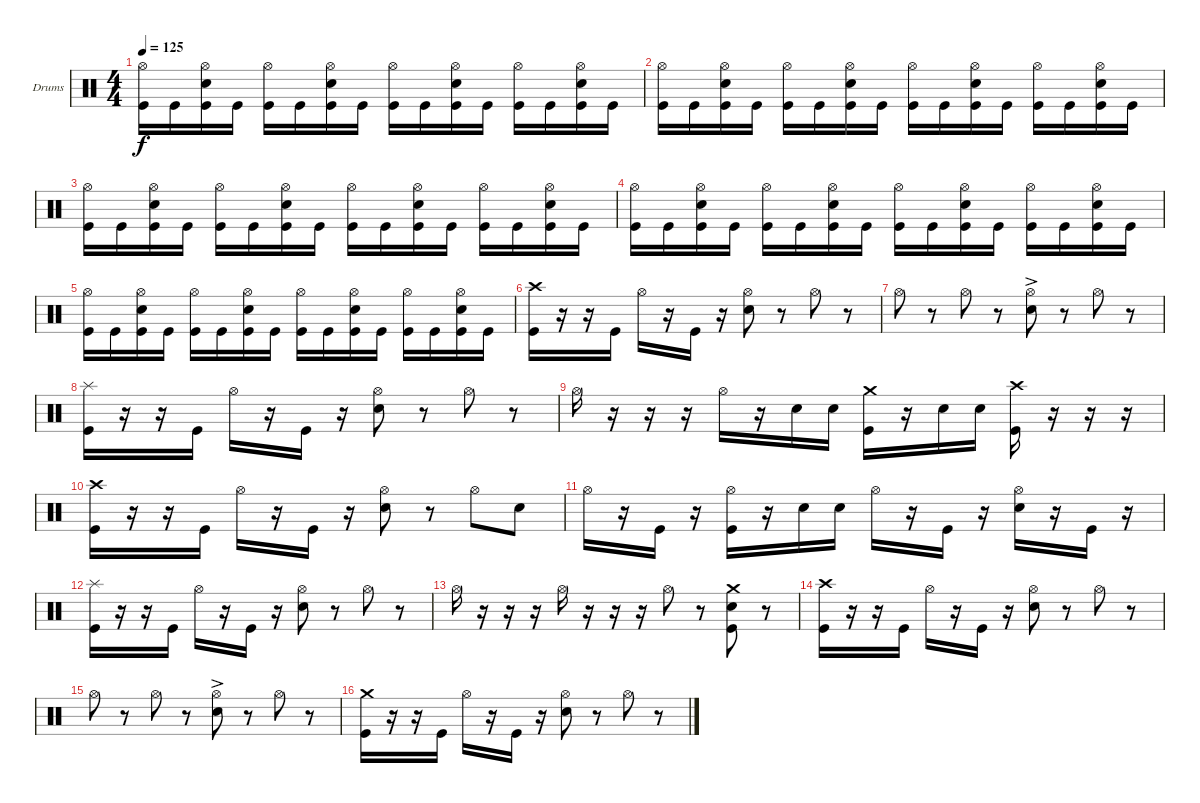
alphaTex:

\defaultSystemsLayout 4
\bracketExtendMode groupsimilarinstruments
\firstSystemTrackNameOrientation horizontal
\otherSystemsTrackNameOrientation horizontal
\track ("Drumkit" "Drums") {instrument percussion}
\staff {score}
\articulation defaults
\ts (4 4)
\tempo 125
\clef neutral
\ks c
("Kick (hit)" "Hi-Hat (open)").16{dy f} "Kick (hit)".16 ("Kick (hit)" "Snare (hit) 2" "Hi-Hat (open)").16 "Kick (hit)".16 ("Kick (hit)" "Hi-Hat (open)").16 "Kick (hit)".16 ("Kick (hit)" "Snare (hit) 2" "Hi-Hat (open)").16 "Kick (hit)".16 ("Kick (hit)" "Hi-Hat (open)").16 "Kick (hit)".16 ("Kick (hit)" "Snare (hit) 2" "Hi-Hat (open)").16 "Kick (hit)".16 ("Kick (hit)" "Hi-Hat (open)").16 "Kick (hit)".16 ("Kick (hit)" "Snare (hit) 2" "Hi-Hat (open)").16 "Kick (hit)".16 |
("Kick (hit)" "Hi-Hat (open)").16 "Kick (hit)".16 ("Kick (hit)" "Snare (hit) 2" "Hi-Hat (open)").16 "Kick (hit)".16 ("Kick (hit)" "Hi-Hat (open)").16 "Kick (hit)".16 ("Kick (hit)" "Snare (hit) 2" "Hi-Hat (open)").16 "Kick (hit)".16 ("Kick (hit)" "Hi-Hat (open)").16 "Kick (hit)".16 ("Kick (hit)" "Snare (hit) 2" "Hi-Hat (open)").16 "Kick (hit)".16 ("Kick (hit)" "Hi-Hat (open)").16 "Kick (hit)".16 ("Kick (hit)" "Snare (hit) 2" "Hi-Hat (open)").16 "Kick (hit)".16 |
("Kick (hit)" "Hi-Hat (open)").16 "Kick (hit)".16 ("Kick (hit)" "Snare (hit) 2" "Hi-Hat (open)").16 "Kick (hit)".16 ("Kick (hit)" "Hi-Hat (open)").16 "Kick (hit)".16 ("Kick (hit)" "Snare (hit) 2" "Hi-Hat (open)").16 "Kick (hit)".16 ("Kick (hit)" "Hi-Hat (open)").16 "Kick (hit)".16 ("Kick (hit)" "Snare (hit) 2" "Hi-Hat (open)").16 "Kick (hit)".16 ("Kick (hit)" "Hi-Hat (open)").16 "Kick (hit)".16 ("Kick (hit)" "Snare (hit) 2" "Hi-Hat (open)").16 "Kick (hit)".16 |
("Kick (hit)" "Hi-Hat (open)").16 "Kick (hit)".16 ("Kick (hit)" "Snare (hit) 2" "Hi-Hat (open)").16 "Kick (hit)".16 ("Kick (hit)" "Hi-Hat (open)").16 "Kick (hit)".16 ("Kick (hit)" "Snare (hit) 2" "Hi-Hat (open)").16 "Kick (hit)".16 ("Kick (hit)" "Hi-Hat (open)").16 "Kick (hit)".16 ("Kick (hit)" "Snare (hit) 2" "Hi-Hat (open)").16 "Kick (hit)".16 ("Kick (hit)" "Hi-Hat (open)").16 "Kick (hit)".16 ("Kick (hit)" "Snare (hit) 2" "Hi-Hat (open)").16 "Kick (hit)".16 |
("Kick (hit)" "Hi-Hat (open)").16 "Kick (hit)".16 ("Kick (hit)" "Snare (hit) 2" "Hi-Hat (open)").16 "Kick (hit)".16 ("Kick (hit)" "Hi-Hat (open)").16 "Kick (hit)".16 ("Kick (hit)" "Snare (hit) 2" "Hi-Hat (open)").16 "Kick (hit)".16 ("Kick (hit)" "Hi-Hat (open)").16 "Kick (hit)".16 ("Kick (hit)" "Snare (hit) 2" "Hi-Hat (open)").16 "Kick (hit)".16 ("Kick (hit)" "Hi-Hat (open)").16 "Kick (hit)".16 ("Kick (hit)" "Snare (hit) 2" "Hi-Hat (open)").16 "Kick (hit)".16 |
("Kick (hit)" "Crash high (hit)").16 r.16 r.16 "Kick (hit)".16 "Hi-Hat (open)".16 r.16 "Kick (hit)".16 r.16 ("Snare (hit) 2" "Hi-Hat (open)").8 r.8 "Hi-Hat (open)".8 r.8 |
"Hi-Hat (open)".8 r.8 "Hi-Hat (open)".8 r.8 ("Snare (hit) 2"{ac} "Hi-Hat (open)").8 r.8 "Hi-Hat (open)".8 r.8 |
("Kick (hit)" "Splash (hit)").16 r.16 r.16 "Kick (hit)".16 "Hi-Hat (open)".16 r.16 "Kick (hit)".16 r.16 ("Snare (hit) 2" "Hi-Hat (open)").8 r.8 "Hi-Hat (open)".8 r.8 |
"Hi-Hat (open)".16 r.16 r.16 r.16 "Hi-Hat (open)".16 r.16 "Snare (hit) 2".16 "Snare (hit) 2".16 ("Kick (hit)" "Crash medium (hit)").16 r.16 "Snare (hit) 2".16 "Snare (hit) 2".16 ("Kick (hit)" "Crash high (hit)").16 r.16 r.16 r.16 |
("Kick (hit)" "Crash high (hit)").16 r.16 r.16 "Kick (hit)".16 "Hi-Hat (open)".16 r.16 "Kick (hit)".16 r.16 ("Snare (hit) 2" "Hi-Hat (open)").8 r.8 "Hi-Hat (open)".8 "Snare (hit) 2".8 |
"Hi-Hat (open)".16 r.16 "Kick (hit)".16 r.16 ("Kick (hit)" "Hi-Hat (open)").16 r.16 "Snare (hit) 2".16 "Snare (hit) 2".16 "Hi-Hat (open)".16 r.16 "Kick (hit)".16 r.16 ("Snare (hit) 2" "Hi-Hat (open)").16 r.16 "Kick (hit)".16 r.16 |
("Kick (hit)" "Splash (hit)").16 r.16 r.16 "Kick (hit)".16 "Hi-Hat (open)".16 r.16 "Kick (hit)".16 r.16 ("Snare (hit) 2" "Hi-Hat (open)").8 r.8 "Hi-Hat (open)".8 r.8 |
"Hi-Hat (open)".16 r.16 r.16 r.16 "Hi-Hat (open)".16 r.16 r.16 r.16 "Hi-Hat (open)".8 r.8 ("Snare (hit) 2" "Kick (hit)" "Crash medium (hit)").8 r.8 |
("Kick (hit)" "Crash high (hit)").16 r.16 r.16 "Kick (hit)".16 "Hi-Hat (open)".16 r.16 "Kick (hit)".16 r.16 ("Snare (hit) 2" "Hi-Hat (open)").8 r.8 "Hi-Hat (open)".8 r.8 |
"Hi-Hat (open)".8 r.8 "Hi-Hat (open)".8 r.8 ("Snare (hit) 2"{ac} "Hi-Hat (open)").8 r.8 "Hi-Hat (open)".8 r.8 |
("Kick (hit)" "Crash medium (hit)").16 r.16 r.16 "Kick (hit)".16 "Hi-Hat (open)".16 r.16 "Kick (hit)".16 r.16 ("Snare (hit) 2" "Hi-Hat (open)").8 r.8 "Hi-Hat (open)".8 r.8
